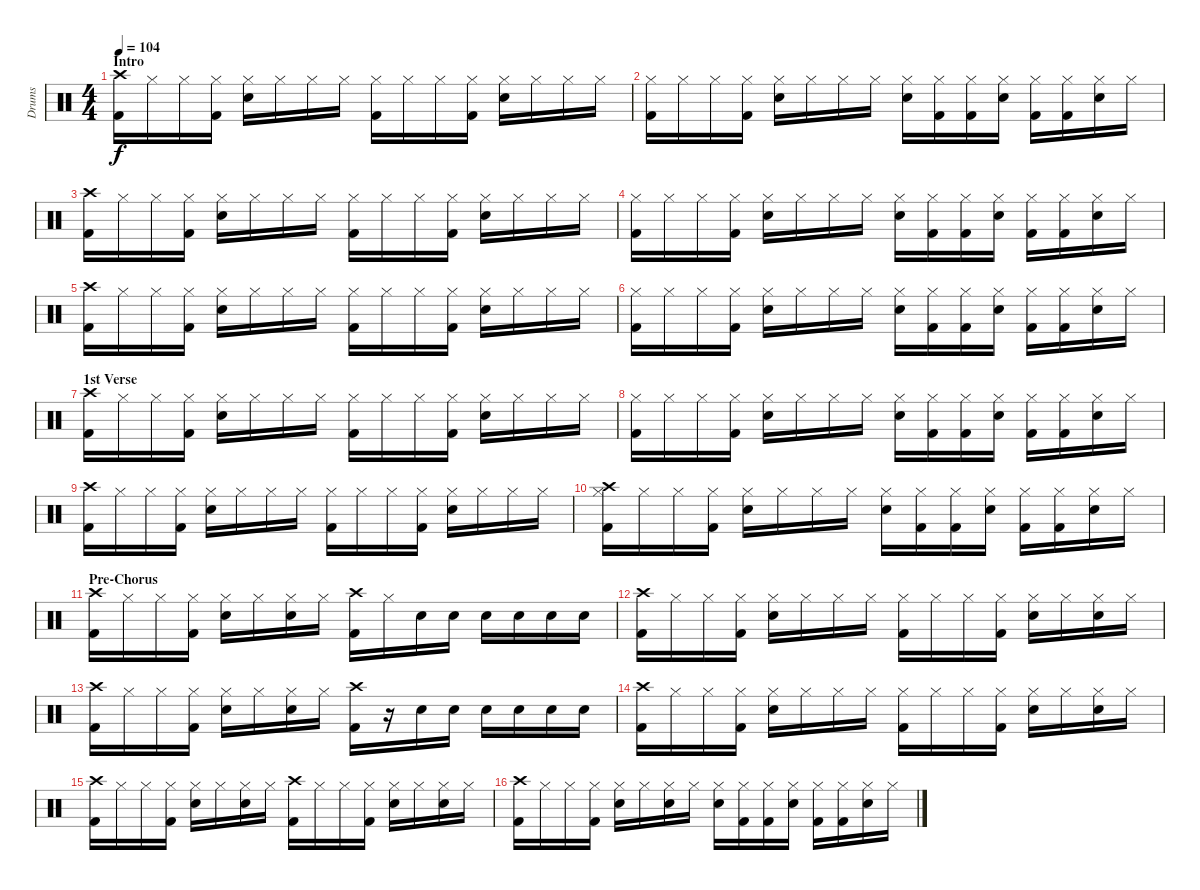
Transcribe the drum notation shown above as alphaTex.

\track ("Drums" "Drums") {instrument percussion}
\staff {score}
\articulation defaults
\ts (4 4)
\section ("" "Intro")
\tempo 104
\clef neutral
\ks c
("Crash high (hit)" "Kick (hit) 2").16{dy f} "Hi-Hat (closed)".16 "Hi-Hat (closed)".16 ("Hi-Hat (closed)" "Kick (hit) 2").16 ("Hi-Hat (closed)" "Snare (hit) 2").16 "Hi-Hat (closed)".16 "Hi-Hat (closed)".16 "Hi-Hat (closed)".16 ("Hi-Hat (closed)" "Kick (hit) 2").16 "Hi-Hat (closed)".16 "Hi-Hat (closed)".16 ("Hi-Hat (closed)" "Kick (hit) 2").16 ("Hi-Hat (closed)" "Snare (hit) 2").16 "Hi-Hat (closed)".16 "Hi-Hat (closed)".16 "Hi-Hat (closed)".16 |
("Hi-Hat (closed)" "Kick (hit) 2").16 "Hi-Hat (closed)".16 "Hi-Hat (closed)".16 ("Hi-Hat (closed)" "Kick (hit) 2").16 ("Hi-Hat (closed)" "Snare (hit) 2").16 "Hi-Hat (closed)".16 "Hi-Hat (closed)".16 "Hi-Hat (closed)".16 ("Hi-Hat (closed)" "Snare (hit) 2").16 ("Hi-Hat (closed)" "Kick (hit) 2").16 ("Hi-Hat (closed)" "Kick (hit) 2").16 ("Hi-Hat (closed)" "Snare (hit) 2").16 ("Hi-Hat (closed)" "Kick (hit) 2").16 ("Hi-Hat (closed)" "Kick (hit) 2").16 ("Hi-Hat (closed)" "Snare (hit) 2").16 "Hi-Hat (closed)".16 |
("Crash high (hit)" "Kick (hit) 2").16 "Hi-Hat (closed)".16 "Hi-Hat (closed)".16 ("Hi-Hat (closed)" "Kick (hit) 2").16 ("Hi-Hat (closed)" "Snare (hit) 2").16 "Hi-Hat (closed)".16 "Hi-Hat (closed)".16 "Hi-Hat (closed)".16 ("Hi-Hat (closed)" "Kick (hit) 2").16 "Hi-Hat (closed)".16 "Hi-Hat (closed)".16 ("Hi-Hat (closed)" "Kick (hit) 2").16 ("Hi-Hat (closed)" "Snare (hit) 2").16 "Hi-Hat (closed)".16 "Hi-Hat (closed)".16 "Hi-Hat (closed)".16 |
("Hi-Hat (closed)" "Kick (hit) 2").16 "Hi-Hat (closed)".16 "Hi-Hat (closed)".16 ("Hi-Hat (closed)" "Kick (hit) 2").16 ("Hi-Hat (closed)" "Snare (hit) 2").16 "Hi-Hat (closed)".16 "Hi-Hat (closed)".16 "Hi-Hat (closed)".16 ("Hi-Hat (closed)" "Snare (hit) 2").16 ("Hi-Hat (closed)" "Kick (hit) 2").16 ("Hi-Hat (closed)" "Kick (hit) 2").16 ("Hi-Hat (closed)" "Snare (hit) 2").16 ("Hi-Hat (closed)" "Kick (hit) 2").16 ("Hi-Hat (closed)" "Kick (hit) 2").16 ("Hi-Hat (closed)" "Snare (hit) 2").16 "Hi-Hat (closed)".16 |
("Crash high (hit)" "Kick (hit) 2").16 "Hi-Hat (closed)".16 "Hi-Hat (closed)".16 ("Hi-Hat (closed)" "Kick (hit) 2").16 ("Hi-Hat (closed)" "Snare (hit) 2").16 "Hi-Hat (closed)".16 "Hi-Hat (closed)".16 "Hi-Hat (closed)".16 ("Hi-Hat (closed)" "Kick (hit) 2").16 "Hi-Hat (closed)".16 "Hi-Hat (closed)".16 ("Hi-Hat (closed)" "Kick (hit) 2").16 ("Hi-Hat (closed)" "Snare (hit) 2").16 "Hi-Hat (closed)".16 "Hi-Hat (closed)".16 "Hi-Hat (closed)".16 |
("Hi-Hat (closed)" "Kick (hit) 2").16 "Hi-Hat (closed)".16 "Hi-Hat (closed)".16 ("Hi-Hat (closed)" "Kick (hit) 2").16 ("Hi-Hat (closed)" "Snare (hit) 2").16 "Hi-Hat (closed)".16 "Hi-Hat (closed)".16 "Hi-Hat (closed)".16 ("Hi-Hat (closed)" "Snare (hit) 2").16 ("Hi-Hat (closed)" "Kick (hit) 2").16 ("Hi-Hat (closed)" "Kick (hit) 2").16 ("Hi-Hat (closed)" "Snare (hit) 2").16 ("Hi-Hat (closed)" "Kick (hit) 2").16 ("Hi-Hat (closed)" "Kick (hit) 2").16 ("Hi-Hat (closed)" "Snare (hit) 2").16 "Hi-Hat (closed)".16 |
\section ("" "1st Verse")
("Crash high (hit)" "Kick (hit) 2").16 "Hi-Hat (closed)".16 "Hi-Hat (closed)".16 ("Hi-Hat (closed)" "Kick (hit) 2").16 ("Hi-Hat (closed)" "Snare (hit) 2").16 "Hi-Hat (closed)".16 "Hi-Hat (closed)".16 "Hi-Hat (closed)".16 ("Hi-Hat (closed)" "Kick (hit) 2").16 "Hi-Hat (closed)".16 "Hi-Hat (closed)".16 ("Hi-Hat (closed)" "Kick (hit) 2").16 ("Hi-Hat (closed)" "Snare (hit) 2").16 "Hi-Hat (closed)".16 "Hi-Hat (closed)".16 "Hi-Hat (closed)".16 |
("Hi-Hat (closed)" "Kick (hit) 2").16 "Hi-Hat (closed)".16 "Hi-Hat (closed)".16 ("Hi-Hat (closed)" "Kick (hit) 2").16 ("Hi-Hat (closed)" "Snare (hit) 2").16 "Hi-Hat (closed)".16 "Hi-Hat (closed)".16 "Hi-Hat (closed)".16 ("Hi-Hat (closed)" "Snare (hit) 2").16 ("Hi-Hat (closed)" "Kick (hit) 2").16 ("Hi-Hat (closed)" "Kick (hit) 2").16 ("Hi-Hat (closed)" "Snare (hit) 2").16 ("Hi-Hat (closed)" "Kick (hit) 2").16 ("Hi-Hat (closed)" "Kick (hit) 2").16 ("Hi-Hat (closed)" "Snare (hit) 2").16 "Hi-Hat (closed)".16 |
("Crash high (hit)" "Kick (hit) 2").16 "Hi-Hat (closed)".16 "Hi-Hat (closed)".16 ("Hi-Hat (closed)" "Kick (hit) 2").16 ("Hi-Hat (closed)" "Snare (hit) 2").16 "Hi-Hat (closed)".16 "Hi-Hat (closed)".16 "Hi-Hat (closed)".16 ("Hi-Hat (closed)" "Kick (hit) 2").16 "Hi-Hat (closed)".16 "Hi-Hat (closed)".16 ("Hi-Hat (closed)" "Kick (hit) 2").16 ("Hi-Hat (closed)" "Snare (hit) 2").16 "Hi-Hat (closed)".16 "Hi-Hat (closed)".16 "Hi-Hat (closed)".16 |
("Crash high (hit)" "Hi-Hat (closed)" "Kick (hit) 2").16 "Hi-Hat (closed)".16 "Hi-Hat (closed)".16 ("Hi-Hat (closed)" "Kick (hit) 2").16 ("Hi-Hat (closed)" "Snare (hit) 2").16 "Hi-Hat (closed)".16 "Hi-Hat (closed)".16 "Hi-Hat (closed)".16 ("Hi-Hat (closed)" "Snare (hit) 2").16 ("Hi-Hat (closed)" "Kick (hit) 2").16 ("Hi-Hat (closed)" "Kick (hit) 2").16 ("Hi-Hat (closed)" "Snare (hit) 2").16 ("Hi-Hat (closed)" "Kick (hit) 2").16 ("Hi-Hat (closed)" "Kick (hit) 2").16 ("Hi-Hat (closed)" "Snare (hit) 2").16 "Hi-Hat (closed)".16 |
\section ("" "Pre-Chorus")
("Crash high (hit)" "Kick (hit) 2").16 "Hi-Hat (closed)".16 "Hi-Hat (closed)".16 ("Hi-Hat (closed)" "Kick (hit) 2").16 ("Hi-Hat (closed)" "Snare (hit) 2").16 "Hi-Hat (closed)".16 ("Hi-Hat (closed)" "Snare (hit) 2").16 "Hi-Hat (closed)".16 ("Crash high (hit)" "Kick (hit) 2").16 "Hi-Hat (closed)".16 "Snare (hit) 2".16 "Snare (hit) 2".16 "Snare (hit) 2".16 "Snare (hit) 2".16 "Snare (hit) 2".16 "Snare (hit) 2".16 |
("Crash high (hit)" "Kick (hit) 2").16 "Hi-Hat (closed)".16 "Hi-Hat (closed)".16 ("Hi-Hat (closed)" "Kick (hit) 2").16 ("Hi-Hat (closed)" "Snare (hit) 2").16 "Hi-Hat (closed)".16 "Hi-Hat (closed)".16 "Hi-Hat (closed)".16 ("Hi-Hat (closed)" "Kick (hit) 2").16 "Hi-Hat (closed)".16 "Hi-Hat (closed)".16 ("Hi-Hat (closed)" "Kick (hit) 2").16 ("Hi-Hat (closed)" "Snare (hit) 2").16 "Hi-Hat (closed)".16 ("Hi-Hat (closed)" "Snare (hit) 2").16 "Hi-Hat (closed)".16 |
("Crash high (hit)" "Kick (hit) 2").16 "Hi-Hat (closed)".16 "Hi-Hat (closed)".16 ("Hi-Hat (closed)" "Kick (hit) 2").16 ("Hi-Hat (closed)" "Snare (hit) 2").16 "Hi-Hat (closed)".16 ("Hi-Hat (closed)" "Snare (hit) 2").16 "Hi-Hat (closed)".16 ("Crash high (hit)" "Kick (hit) 2").16 r.16 "Snare (hit) 2".16 "Snare (hit) 2".16 "Snare (hit) 2".16 "Snare (hit) 2".16 "Snare (hit) 2".16 "Snare (hit) 2".16 |
("Crash high (hit)" "Kick (hit) 2").16 "Hi-Hat (closed)".16 "Hi-Hat (closed)".16 ("Hi-Hat (closed)" "Kick (hit) 2").16 ("Hi-Hat (closed)" "Snare (hit) 2").16 "Hi-Hat (closed)".16 "Hi-Hat (closed)".16 "Hi-Hat (closed)".16 ("Hi-Hat (closed)" "Kick (hit) 2").16 "Hi-Hat (closed)".16 "Hi-Hat (closed)".16 ("Hi-Hat (closed)" "Kick (hit) 2").16 ("Hi-Hat (closed)" "Snare (hit) 2").16 "Hi-Hat (closed)".16 ("Hi-Hat (closed)" "Snare (hit) 2").16 "Hi-Hat (closed)".16 |
("Crash high (hit)" "Kick (hit) 2").16 "Hi-Hat (closed)".16 "Hi-Hat (closed)".16 ("Hi-Hat (closed)" "Kick (hit) 2").16 ("Hi-Hat (closed)" "Snare (hit) 2").16 "Hi-Hat (closed)".16 ("Hi-Hat (closed)" "Snare (hit) 2").16 "Hi-Hat (closed)".16 ("Crash high (hit)" "Kick (hit) 2").16 "Hi-Hat (closed)".16 "Hi-Hat (closed)".16 ("Hi-Hat (closed)" "Kick (hit) 2").16 ("Hi-Hat (closed)" "Snare (hit) 2").16 "Hi-Hat (closed)".16 ("Hi-Hat (closed)" "Snare (hit) 2").16 "Hi-Hat (closed)".16 |
("Crash high (hit)" "Kick (hit) 2").16 "Hi-Hat (closed)".16 "Hi-Hat (closed)".16 ("Hi-Hat (closed)" "Kick (hit) 2").16 ("Hi-Hat (closed)" "Snare (hit) 2").16 "Hi-Hat (closed)".16 ("Hi-Hat (closed)" "Snare (hit) 2").16 "Hi-Hat (closed)".16 ("Hi-Hat (closed)" "Snare (hit) 2").16 ("Hi-Hat (closed)" "Kick (hit) 2").16 ("Hi-Hat (closed)" "Kick (hit) 2").16 ("Hi-Hat (closed)" "Snare (hit) 2").16 ("Hi-Hat (closed)" "Kick (hit) 2").16 ("Hi-Hat (closed)" "Kick (hit) 2").16 ("Hi-Hat (closed)" "Snare (hit) 2").16 "Hi-Hat (closed)".16
